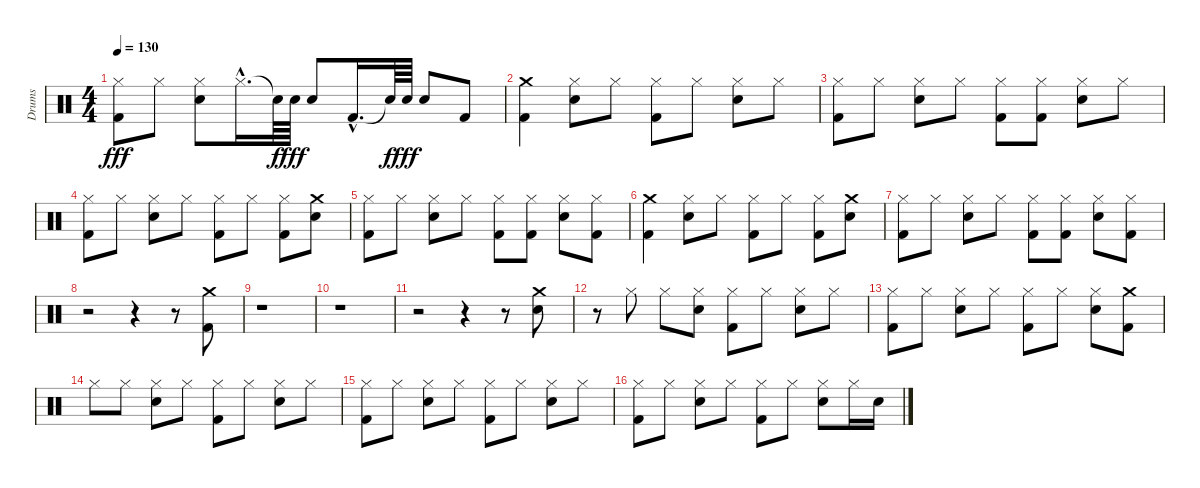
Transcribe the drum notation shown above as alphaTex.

\track ("Drums" "Drums") {instrument percussion}
\staff {score}
\articulation defaults
\ts (4 4)
\tempo 130
\clef neutral
\ks c
("Kick (hit) 2" "Hi-Hat (closed)").8{dy fff} "Hi-Hat (closed)".8 ("Snare (hit) 2" "Hi-Hat (closed)").8 "Hi-Hat (closed)"{hac}.16{d} "Snare (hit)"{t}.64{dy f} "Snare (hit) 2".64{dy fff} "Snare (hit) 2".8 "Kick (hit) 2"{hac}.16{d} "Snare (hit)"{t}.64{dy f} "Snare (hit) 2".64{dy fff} "Snare (hit) 2".8 "Kick (hit) 2".8 |
("Kick (hit) 2" "Crash medium (hit)").4 ("Snare (hit) 2" "Hi-Hat (closed)").8 "Hi-Hat (closed)".8 ("Hi-Hat (closed)" "Kick (hit) 2").8 "Hi-Hat (closed)".8 ("Snare (hit) 2" "Hi-Hat (closed)").8 "Hi-Hat (closed)".8 |
("Hi-Hat (closed)" "Kick (hit) 2").8 "Hi-Hat (closed)".8 ("Snare (hit) 2" "Hi-Hat (closed)").8 "Hi-Hat (closed)".8 ("Kick (hit) 2" "Hi-Hat (closed)").8 ("Kick (hit) 2" "Hi-Hat (closed)").8 ("Snare (hit) 2" "Hi-Hat (closed)").8 "Hi-Hat (closed)".8 |
("Hi-Hat (closed)" "Kick (hit) 2").8 "Hi-Hat (closed)".8 ("Snare (hit) 2" "Hi-Hat (closed)").8 "Hi-Hat (closed)".8 ("Hi-Hat (closed)" "Kick (hit) 2").8 "Hi-Hat (closed)".8 ("Hi-Hat (closed)" "Kick (hit) 2").8 ("Crash medium (hit)" "Snare (hit) 2").8 |
("Hi-Hat (closed)" "Kick (hit) 2").8 "Hi-Hat (closed)".8 ("Snare (hit) 2" "Hi-Hat (closed)").8 "Hi-Hat (closed)".8 ("Kick (hit) 2" "Hi-Hat (closed)").8 ("Kick (hit) 2" "Hi-Hat (closed)").8 ("Snare (hit) 2" "Hi-Hat (closed)").8 ("Kick (hit) 2" "Hi-Hat (closed)").8 |
("Kick (hit) 2" "Crash medium (hit)").4 ("Hi-Hat (closed)" "Snare (hit) 2").8 "Hi-Hat (closed)".8 ("Kick (hit) 2" "Hi-Hat (closed)").8 "Hi-Hat (closed)".8 ("Kick (hit) 2" "Hi-Hat (closed)").8 ("Crash medium (hit)" "Snare (hit) 2").8 |
("Hi-Hat (closed)" "Kick (hit) 2").8 "Hi-Hat (closed)".8 ("Snare (hit) 2" "Hi-Hat (closed)").8 "Hi-Hat (closed)".8 ("Kick (hit) 2" "Hi-Hat (closed)").8 ("Kick (hit) 2" "Hi-Hat (closed)").8 ("Snare (hit) 2" "Hi-Hat (closed)").8 ("Kick (hit) 2" "Hi-Hat (closed)").8 |
r.2 r.4 r.8 ("Kick (hit) 2" "Crash medium (hit)").8 |
r.1 |
r.1 |
r.2 r.4 r.8 ("Snare (hit) 2" "Crash medium (hit)").8 |
r.8 "Hi-Hat (closed)".8 "Hi-Hat (closed)".8 ("Snare (hit) 2" "Hi-Hat (closed)").8 ("Kick (hit) 2" "Hi-Hat (closed)").8 "Hi-Hat (closed)".8 ("Snare (hit) 2" "Hi-Hat (closed)").8 "Hi-Hat (closed)".8 |
("Kick (hit) 2" "Hi-Hat (closed)").8 "Hi-Hat (closed)".8 ("Snare (hit) 2" "Hi-Hat (closed)").8 "Hi-Hat (closed)".8 ("Kick (hit) 2" "Hi-Hat (closed)").8 "Hi-Hat (closed)".8 ("Snare (hit) 2" "Hi-Hat (closed)").8 ("Crash medium (hit)" "Kick (hit) 2").8 |
"Hi-Hat (closed)".8 "Hi-Hat (closed)".8 ("Snare (hit) 2" "Hi-Hat (closed)").8 "Hi-Hat (closed)".8 ("Kick (hit) 2" "Hi-Hat (closed)").8 "Hi-Hat (closed)".8 ("Snare (hit) 2" "Hi-Hat (closed)").8 "Hi-Hat (closed)".8 |
("Kick (hit) 2" "Hi-Hat (closed)").8 "Hi-Hat (closed)".8 ("Snare (hit) 2" "Hi-Hat (closed)").8 "Hi-Hat (closed)".8 ("Kick (hit) 2" "Hi-Hat (closed)").8 "Hi-Hat (closed)".8 ("Snare (hit) 2" "Hi-Hat (closed)").8 "Hi-Hat (closed)".8 |
("Kick (hit) 2" "Hi-Hat (closed)").8 "Hi-Hat (closed)".8 ("Snare (hit) 2" "Hi-Hat (closed)").8 "Hi-Hat (closed)".8 ("Kick (hit) 2" "Hi-Hat (closed)").8 "Hi-Hat (closed)".8 ("Snare (hit) 2" "Hi-Hat (closed)").8 "Hi-Hat (closed)".16 "Snare (hit) 2".16
